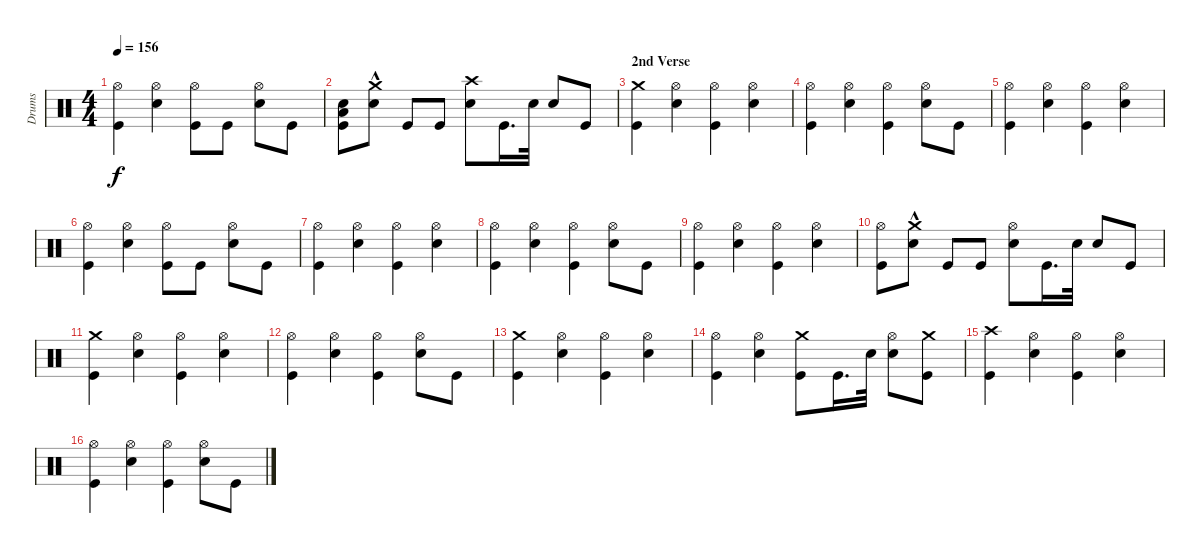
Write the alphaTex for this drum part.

\track ("Drums" "Drums") {instrument percussion}
\staff {score}
\articulation defaults
\ts (4 4)
\tempo 156
\clef neutral
\ks c
("Hi-Hat (open)" "Kick (hit)").4{dy f} ("Hi-Hat (open)" "Electric Snare (hit)").4 ("Hi-Hat (open)" "Kick (hit)").8 "Kick (hit)".8 ("Hi-Hat (open)" "Electric Snare (hit)").8 "Kick (hit)".8 |
("Low Floor Tom (hit)" "Snare (hit) 2" "Kick (hit)").8 ("Crash medium (hit)"{hac} "Electric Snare (hit)").8 "Kick (hit)".8 "Kick (hit)".8 ("Electric Snare (hit)" "Crash high (hit)").8 "Kick (hit)".16{d} "Electric Snare (hit)".32 "Electric Snare (hit)".8 "Kick (hit)".8 |
\section ("" "2nd Verse")
("Kick (hit)" "Crash medium (hit)").4 ("Hi-Hat (open)" "Electric Snare (hit)").4 ("Hi-Hat (open)" "Kick (hit)").4 ("Hi-Hat (open)" "Electric Snare (hit)").4 |
("Kick (hit)" "Hi-Hat (open)").4 ("Electric Snare (hit)" "Hi-Hat (open)").4 ("Kick (hit)" "Hi-Hat (open)").4 ("Electric Snare (hit)" "Hi-Hat (open)").8 "Kick (hit)".8 |
("Kick (hit)" "Hi-Hat (open)").4 ("Electric Snare (hit)" "Hi-Hat (open)").4 ("Kick (hit)" "Hi-Hat (open)").4 ("Electric Snare (hit)" "Hi-Hat (open)").4 |
("Kick (hit)" "Hi-Hat (open)").4 ("Electric Snare (hit)" "Hi-Hat (open)").4 ("Kick (hit)" "Hi-Hat (open)").8 "Kick (hit)".8 ("Electric Snare (hit)" "Hi-Hat (open)").8 "Kick (hit)".8 |
("Kick (hit)" "Hi-Hat (open)").4 ("Hi-Hat (open)" "Electric Snare (hit)").4 ("Hi-Hat (open)" "Kick (hit)").4 ("Hi-Hat (open)" "Electric Snare (hit)").4 |
("Kick (hit)" "Hi-Hat (open)").4 ("Electric Snare (hit)" "Hi-Hat (open)").4 ("Kick (hit)" "Hi-Hat (open)").4 ("Electric Snare (hit)" "Hi-Hat (open)").8 "Kick (hit)".8 |
("Kick (hit)" "Hi-Hat (open)").4 ("Electric Snare (hit)" "Hi-Hat (open)").4 ("Kick (hit)" "Hi-Hat (open)").4 ("Electric Snare (hit)" "Hi-Hat (open)").4 |
("Kick (hit)" "Hi-Hat (open)").8 ("Electric Snare (hit)" "Crash medium (hit)"{hac}).8 "Kick (hit)".8 "Kick (hit)".8 ("Hi-Hat (open)" "Electric Snare (hit)").8 "Kick (hit)".16{d} "Electric Snare (hit)".32 "Electric Snare (hit)".8 "Kick (hit)".8 |
("Kick (hit)" "Crash medium (hit)").4 ("Hi-Hat (open)" "Electric Snare (hit)").4 ("Hi-Hat (open)" "Kick (hit)").4 ("Hi-Hat (open)" "Electric Snare (hit)").4 |
("Kick (hit)" "Hi-Hat (open)").4 ("Electric Snare (hit)" "Hi-Hat (open)").4 ("Kick (hit)" "Hi-Hat (open)").4 ("Electric Snare (hit)" "Hi-Hat (open)").8 "Kick (hit)".8 |
("Kick (hit)" "Crash medium (hit)").4 ("Electric Snare (hit)" "Hi-Hat (open)").4 ("Kick (hit)" "Hi-Hat (open)").4 ("Electric Snare (hit)" "Hi-Hat (open)").4 |
("Kick (hit)" "Hi-Hat (open)").4 ("Electric Snare (hit)" "Hi-Hat (open)").4 ("Kick (hit)" "Crash medium (hit)").8 "Kick (hit)".16{d} "Electric Snare (hit)".32 ("Electric Snare (hit)" "Hi-Hat (open)").8 ("Crash medium (hit)" "Kick (hit)").8 |
("Crash high (hit)" "Kick (hit)").4 ("Electric Snare (hit)" "Hi-Hat (open)").4 ("Kick (hit)" "Hi-Hat (open)").4 ("Electric Snare (hit)" "Hi-Hat (open)").4 |
("Kick (hit)" "Hi-Hat (open)").4 ("Electric Snare (hit)" "Hi-Hat (open)").4 ("Kick (hit)" "Hi-Hat (open)").4 ("Electric Snare (hit)" "Hi-Hat (open)").8 "Kick (hit)".8
